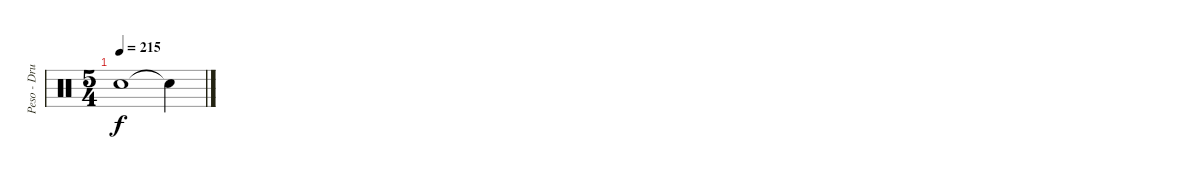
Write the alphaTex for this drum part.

\track ("Peso - Drums" "Peso - Dru") {instrument percussion}
\staff {score}
\articulation defaults
\ts (5 4)
\tempo 215
\clef neutral
\ks c "Snare (hit)"{t}.1{dy f volume 0} "Snare (hit)"{t}.4
